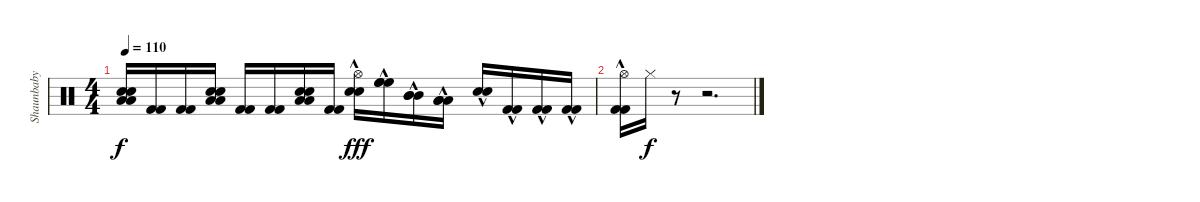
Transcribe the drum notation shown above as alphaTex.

\track ("Shaunbaby" "Shaunbaby") {instrument percussion}
\staff {score}
\articulation defaults
\ts (4 4)
\tempo 110
\clef neutral
\ks c
("Low Floor Tom (hit)" "Low Floor Tom (hit)" "Electric Snare (hit)" "Electric Snare (hit)").16{dy f} ("Kick (hit) 2" "Kick (hit) 2").16 ("Kick (hit) 2" "Kick (hit) 2").16 ("Low Floor Tom (hit)" "Low Floor Tom (hit)" "Electric Snare (hit)" "Electric Snare (hit)").16 ("Kick (hit) 2" "Kick (hit) 2").16 ("Kick (hit) 2" "Kick (hit) 2").16 ("Low Floor Tom (hit)" "Low Floor Tom (hit)" "Electric Snare (hit)" "Electric Snare (hit)").16 ("Kick (hit) 2" "Kick (hit) 2").16 ("Hi-Hat (open)" "Electric Snare (hit)"{hac} "Electric Snare (hit)"{hac}).16{dy fff} ("High Floor Tom (hit)"{hac} "High Floor Tom (hit)"{hac} "High Floor Tom (hit)"{hac}).16 ("Mid Tom (hit)"{hac} "Mid Tom (hit)"{hac} "Mid Tom (hit)"{hac}).16 ("Low Floor Tom (hit)"{hac} "Low Floor Tom (hit)"{hac} "Low Floor Tom (hit)"{hac}).16 ("Electric Snare (hit)"{hac} "Electric Snare (hit)"{hac}).16 ("Kick (hit) 2"{hac} "Kick (hit) 2"{hac}).16 ("Kick (hit) 2"{hac} "Kick (hit) 2"{hac}).16 ("Kick (hit) 2"{hac} "Kick (hit) 2"{hac}).16 |
("Hi-Hat (open)" "Kick (hit) 2"{hac} "Kick (hit) 2"{hac}).16 "Hi-Hat (closed)".16{dy f} r.8 r.2{d}
